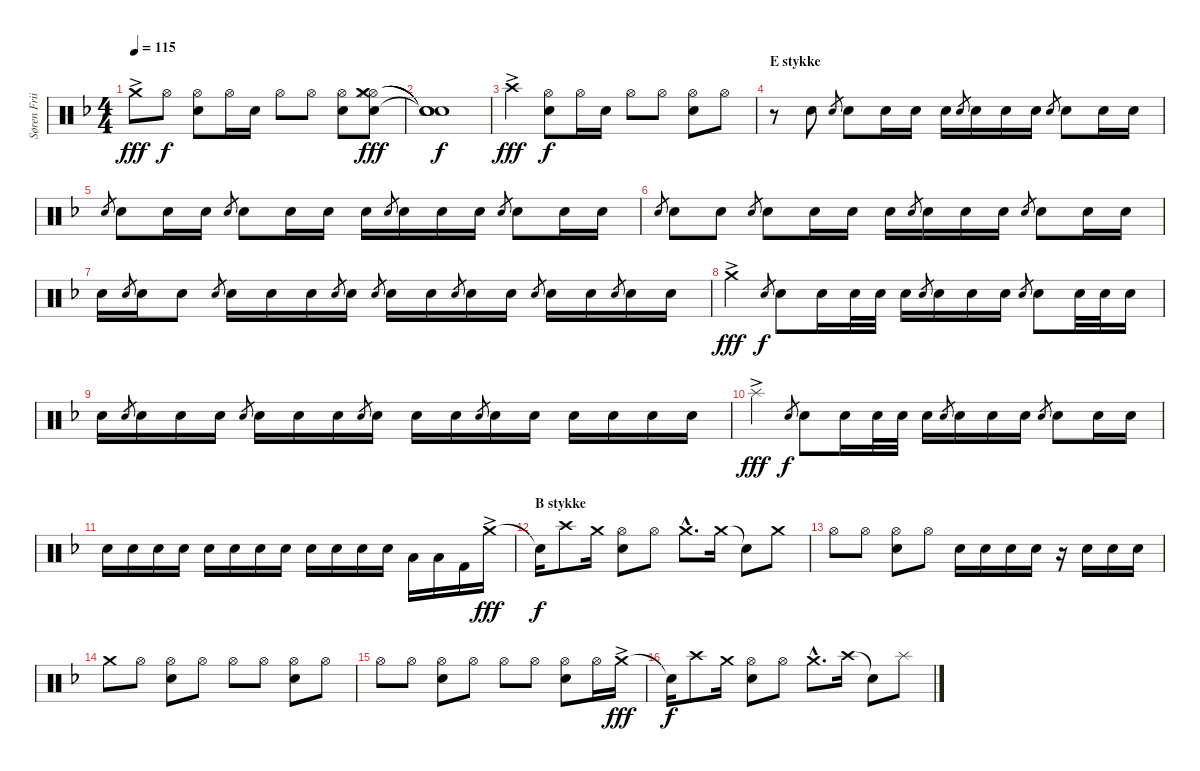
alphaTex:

\track ("Søren Friis (Drums)" "Søren Frii") {instrument percussion}
\staff {score}
\articulation defaults
\ts (4 4)
\tempo 115
\clef neutral
\ks f "Crash medium (hit)"{ac}.8{dy fff} "Hi-Hat (open)".8{dy f}
("Hi-Hat (open)" "Snare (hit) 2").8 "Hi-Hat (open)".16 "Snare (hit) 2".16 "Hi-Hat (open)".8 "Hi-Hat (open)".8 ("Hi-Hat (open)" "Snare (hit) 2").8 ("Hi-Hat (open)" "Hi-Hat (closed)" "Hand Clap (hit)" "Crash medium (hit)").8{dy fff} |
("Snare (hit)"{t} "Snare (hit)"{t} "Snare (hit)"{t} "Snare (hit)"{t}).1{dy f} |
"Crash high (hit)"{ac}.4{dy fff} ("Hi-Hat (open)" "Snare (hit) 2").8{dy f} "Hi-Hat (open)".16 "Snare (hit) 2".16 "Hi-Hat (open)".8 "Hi-Hat (open)".8 ("Hi-Hat (open)" "Snare (hit) 2").8 "Hi-Hat (open)".8 |
\section ("" "E stykke")
r.8 "Snare (hit) 2".8 "Snare (hit) 2".8{gr} "Snare (hit) 2".8 "Snare (hit) 2".16 "Snare (hit) 2".16 "Snare (hit) 2".16 "Snare (hit) 2".8{gr} "Snare (hit) 2".16 "Snare (hit) 2".16 "Snare (hit) 2".16 "Snare (hit) 2".8{gr} "Snare (hit) 2".8 "Snare (hit) 2".16 "Snare (hit) 2".16 |
"Snare (hit) 2".8{gr} "Snare (hit) 2".8 "Snare (hit) 2".16 "Snare (hit) 2".16 "Snare (hit) 2".8{gr} "Snare (hit) 2".8 "Snare (hit) 2".16 "Snare (hit) 2".16 "Snare (hit) 2".16 "Snare (hit) 2".8{gr} "Snare (hit) 2".16 "Snare (hit) 2".16 "Snare (hit) 2".16 "Snare (hit) 2".8{gr} "Snare (hit) 2".8 "Snare (hit) 2".16 "Snare (hit) 2".16 |
"Snare (hit) 2".8{gr} "Snare (hit) 2".8 "Snare (hit) 2".8 "Snare (hit) 2".8{gr} "Snare (hit) 2".8 "Snare (hit) 2".16 "Snare (hit) 2".16 "Snare (hit) 2".16 "Snare (hit) 2".8{gr} "Snare (hit) 2".16 "Snare (hit) 2".16 "Snare (hit) 2".16 "Snare (hit) 2".8{gr} "Snare (hit) 2".8 "Snare (hit) 2".16 "Snare (hit) 2".16 |
"Snare (hit) 2".16 "Snare (hit) 2".8{gr} "Snare (hit) 2".16 "Snare (hit) 2".8 "Snare (hit) 2".8{gr} "Snare (hit) 2".16 "Snare (hit) 2".16 "Snare (hit) 2".16 "Snare (hit) 2".8{gr} "Snare (hit) 2".16 "Snare (hit) 2".8{gr} "Snare (hit) 2".16 "Snare (hit) 2".16 "Snare (hit) 2".8{gr} "Snare (hit) 2".16 "Snare (hit) 2".16 "Snare (hit) 2".8{gr} "Snare (hit) 2".16 "Snare (hit) 2".16 "Snare (hit) 2".8{gr} "Snare (hit) 2".16 "Snare (hit) 2".16 |
"Crash medium (hit)"{ac}.4{dy fff} "Snare (hit) 2".8{gr dy f} "Snare (hit) 2".8 "Snare (hit) 2".16 "Snare (hit) 2".32 "Snare (hit) 2".32 "Snare (hit) 2".16 "Snare (hit) 2".8{gr} "Snare (hit) 2".16 "Snare (hit) 2".16 "Snare (hit) 2".16 "Snare (hit) 2".8{gr} "Snare (hit) 2".8 "Snare (hit) 2".32 "Snare (hit) 2".32 "Snare (hit) 2".16 |
"Snare (hit) 2".16 "Snare (hit) 2".8{gr} "Snare (hit) 2".16 "Snare (hit) 2".16 "Snare (hit) 2".16 "Snare (hit) 2".8{gr} "Snare (hit) 2".16 "Snare (hit) 2".16 "Snare (hit) 2".16 "Snare (hit) 2".8{gr} "Snare (hit) 2".16 "Snare (hit) 2".16 "Snare (hit) 2".16 "Snare (hit) 2".8{gr} "Snare (hit) 2".16 "Snare (hit) 2".16 "Snare (hit) 2".16 "Snare (hit) 2".16 "Snare (hit) 2".16 "Snare (hit) 2".16 |
"Splash (hit)"{ac}.4{dy fff} "Snare (hit) 2".8{gr dy f} "Snare (hit) 2".8 "Snare (hit) 2".16 "Snare (hit) 2".32 "Snare (hit) 2".32 "Snare (hit) 2".16 "Snare (hit) 2".8{gr} "Snare (hit) 2".16 "Snare (hit) 2".16 "Snare (hit) 2".16 "Snare (hit) 2".8{gr} "Snare (hit) 2".8 "Snare (hit) 2".16 "Snare (hit) 2".16 |
"Snare (hit) 2".16 "Snare (hit) 2".16 "Snare (hit) 2".16 "Snare (hit) 2".16 "Snare (hit) 2".16 "Snare (hit) 2".16 "Snare (hit) 2".16 "Snare (hit) 2".16 "Snare (hit) 2".16 "Snare (hit) 2".16 "Snare (hit) 2".16 "Snare (hit) 2".16 "Low Tom (hit)".16 "Low Tom (hit)".16 "Kick (hit) 2".16 "Crash medium (hit)"{ac}.16{dy fff} |
\section ("" "B stykke")
"Snare (hit)"{t}.16{dy f} "Crash high (hit)".8 "Crash medium (hit)".16 ("Hi-Hat (open)" "Snare (hit) 2").8 "Hi-Hat (open)".8 "Crash medium (hit)"{hac}.8{d} "Crash medium (hit)".16 "Snare (hit)"{t}.8 "Crash medium (hit)".8 |
"Hi-Hat (open)".8 "Hi-Hat (open)".8 ("Hi-Hat (open)" "Snare (hit) 2").8 "Hi-Hat (open)".8 "Snare (hit) 2".16 "Snare (hit) 2".16 "Snare (hit) 2".16 "Snare (hit) 2".16 r.16 "Snare (hit) 2".16 "Snare (hit) 2".16 "Snare (hit) 2".16 |
"Crash medium (hit)".8 "Hi-Hat (open)".8 ("Hi-Hat (open)" "Snare (hit) 2").8 "Hi-Hat (open)".8 "Hi-Hat (open)".8 "Hi-Hat (open)".8 ("Hi-Hat (open)" "Snare (hit) 2").8 "Hi-Hat (open)".8 |
"Hi-Hat (open)".8 "Hi-Hat (open)".8 ("Hi-Hat (open)" "Snare (hit) 2").8 "Hi-Hat (open)".8 "Hi-Hat (open)".8 "Hi-Hat (open)".8 ("Hi-Hat (open)" "Snare (hit) 2").8 "Hi-Hat (open)".16 "Crash medium (hit)"{ac}.16{dy fff} |
"Snare (hit)"{t}.16{dy f} "Crash high (hit)".8 "Crash medium (hit)".16 ("Hi-Hat (open)" "Snare (hit) 2").8 "Hi-Hat (open)".8 "Crash medium (hit)"{hac}.8{d} "Crash high (hit)".16 "Snare (hit)"{t}.8 "Splash (hit)".8
